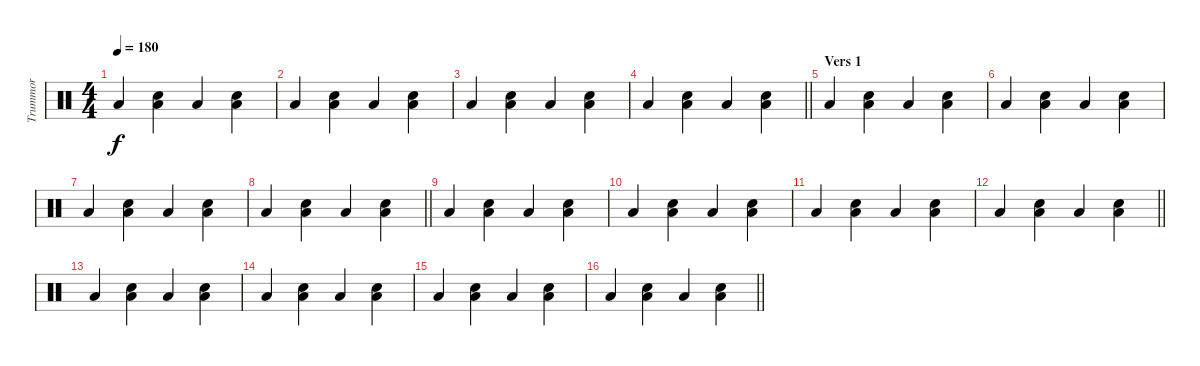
\track ("Trummor" "Trummor") {instrument percussion}
\staff {score}
\articulation defaults
\ts (4 4)
\tempo 180
\clef neutral
\ks c "Low Tom (hit)".4{dy f}
("Low Tom (hit)" "Snare (hit) 2").4 "Low Tom (hit)".4 ("Low Tom (hit)" "Snare (hit) 2").4 |
"Low Tom (hit)".4 ("Low Tom (hit)" "Snare (hit) 2").4 "Low Tom (hit)".4 ("Low Tom (hit)" "Snare (hit) 2").4 |
"Low Tom (hit)".4 ("Low Tom (hit)" "Snare (hit) 2").4 "Low Tom (hit)".4 ("Low Tom (hit)" "Snare (hit) 2").4 |
\barLineRight lightlight "Low Tom (hit)".4
("Low Tom (hit)" "Snare (hit) 2").4 "Low Tom (hit)".4 ("Low Tom (hit)" "Snare (hit) 2").4 |
\section ("" "Vers 1")
"Low Tom (hit)".4 ("Low Tom (hit)" "Snare (hit) 2").4 "Low Tom (hit)".4 ("Low Tom (hit)" "Snare (hit) 2").4 |
"Low Tom (hit)".4 ("Low Tom (hit)" "Snare (hit) 2").4 "Low Tom (hit)".4 ("Low Tom (hit)" "Snare (hit) 2").4 |
"Low Tom (hit)".4 ("Low Tom (hit)" "Snare (hit) 2").4 "Low Tom (hit)".4 ("Low Tom (hit)" "Snare (hit) 2").4 |
\barLineRight lightlight "Low Tom (hit)".4
("Low Tom (hit)" "Snare (hit) 2").4 "Low Tom (hit)".4 ("Low Tom (hit)" "Snare (hit) 2").4 |
"Low Tom (hit)".4 ("Low Tom (hit)" "Snare (hit) 2").4 "Low Tom (hit)".4 ("Low Tom (hit)" "Snare (hit) 2").4 |
"Low Tom (hit)".4 ("Low Tom (hit)" "Snare (hit) 2").4 "Low Tom (hit)".4 ("Low Tom (hit)" "Snare (hit) 2").4 |
"Low Tom (hit)".4 ("Low Tom (hit)" "Snare (hit) 2").4 "Low Tom (hit)".4 ("Low Tom (hit)" "Snare (hit) 2").4 |
\barLineRight lightlight "Low Tom (hit)".4
("Low Tom (hit)" "Snare (hit) 2").4 "Low Tom (hit)".4 ("Low Tom (hit)" "Snare (hit) 2").4 |
"Low Tom (hit)".4 ("Low Tom (hit)" "Snare (hit) 2").4 "Low Tom (hit)".4 ("Low Tom (hit)" "Snare (hit) 2").4 |
"Low Tom (hit)".4 ("Low Tom (hit)" "Snare (hit) 2").4 "Low Tom (hit)".4 ("Low Tom (hit)" "Snare (hit) 2").4 |
"Low Tom (hit)".4 ("Low Tom (hit)" "Snare (hit) 2").4 "Low Tom (hit)".4 ("Low Tom (hit)" "Snare (hit) 2").4 |
\barLineRight lightlight "Low Tom (hit)".4
("Low Tom (hit)" "Snare (hit) 2").4 "Low Tom (hit)".4 ("Low Tom (hit)" "Snare (hit) 2").4
